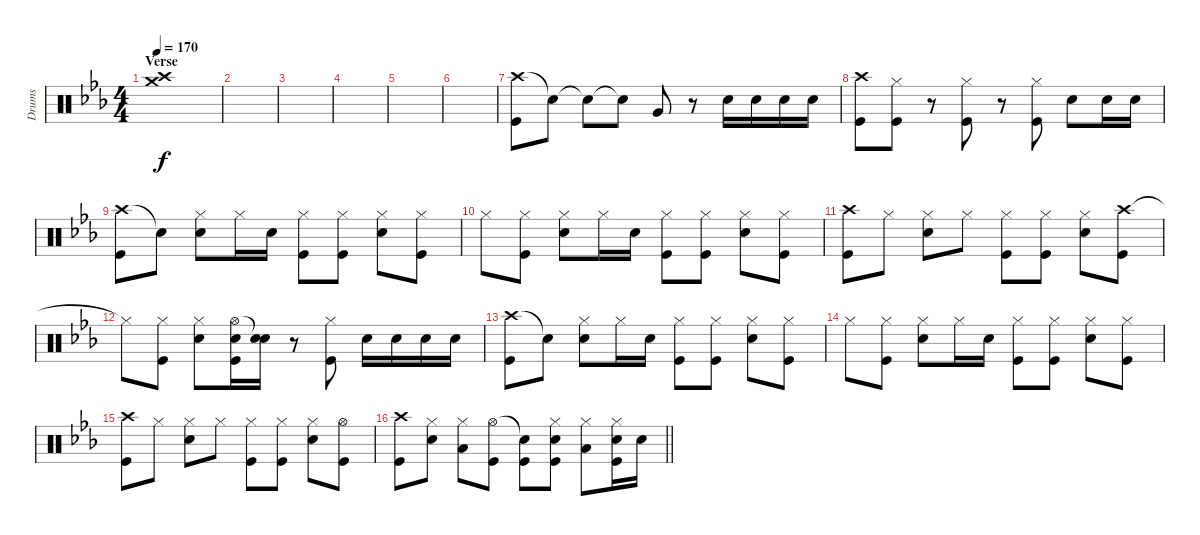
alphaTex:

\track ("Drums" "Drums") {solo instrument percussion}
\staff {score}
\articulation defaults
\ts (4 4)
\section ("" "Verse")
\tempo 170
\clef neutral
\ks eb
("Crash high (hit)" "Crash medium (hit)").1{dy f} |
|
|
|
|
|
("Crash high (hit)" "Kick (hit)").8 "Snare (hit)"{t}.8 "Snare (hit)"{t}.8 "Snare (hit)"{t}.8 "Very Low Tom (hit)".8 r.8 "Snare (hit) 2".16 "Snare (hit) 2".16 "Snare (hit) 2".16 "Snare (hit) 2".16 |
("Crash high (hit)" "Kick (hit)").8 ("Hi-Hat (closed)" "Kick (hit)").8 r.8 ("Hi-Hat (closed)" "Kick (hit)").8 r.8 ("Hi-Hat (closed)" "Kick (hit)").8 "Snare (hit) 2".8 "Snare (hit) 2".16 "Snare (hit) 2".16 |
("Crash high (hit)" "Kick (hit)").8 "Snare (hit)"{t}.8 ("Hi-Hat (closed)" "Snare (hit) 2").8 "Hi-Hat (closed)".16 "Snare (hit) 2".16 ("Hi-Hat (closed)" "Kick (hit)").8 ("Hi-Hat (closed)" "Kick (hit)").8 ("Hi-Hat (closed)" "Snare (hit) 2").8 ("Hi-Hat (closed)" "Kick (hit)").8 |
"Hi-Hat (closed)".8 ("Hi-Hat (closed)" "Kick (hit)").8 ("Hi-Hat (closed)" "Snare (hit) 2").8 "Hi-Hat (closed)".16 "Snare (hit) 2".16 ("Hi-Hat (closed)" "Kick (hit)").8 ("Hi-Hat (closed)" "Kick (hit)").8 ("Hi-Hat (closed)" "Snare (hit) 2").8 ("Hi-Hat (closed)" "Kick (hit)").8 |
("Crash high (hit)" "Kick (hit)").8 "Hi-Hat (closed)".8 ("Hi-Hat (closed)" "Snare (hit) 2").8 "Hi-Hat (closed)".8 ("Hi-Hat (closed)" "Kick (hit)").8 ("Hi-Hat (closed)" "Kick (hit)").8 ("Hi-Hat (closed)" "Snare (hit) 2").8 ("Crash high (hit)" "Kick (hit)").8 |
"Hi-Hat (closed)"{t}.8 ("Hi-Hat (closed)" "Kick (hit)").8 ("Hi-Hat (closed)" "Snare (hit) 2").8 ("Hi-Hat (open)" "Snare (hit) 2" "Kick (hit)").16 ("Snare (hit)"{t} "Snare (hit) 2").16 r.8 ("Hi-Hat (closed)" "Kick (hit)").8 "Snare (hit) 2".16 "Snare (hit) 2".16 "Snare (hit) 2".16 "Snare (hit) 2".16 |
("Crash high (hit)" "Kick (hit)").8 "Snare (hit)"{t}.8 ("Hi-Hat (closed)" "Snare (hit) 2").8 "Hi-Hat (closed)".16 "Snare (hit) 2".16 ("Hi-Hat (closed)" "Kick (hit)").8 ("Hi-Hat (closed)" "Kick (hit)").8 ("Hi-Hat (closed)" "Snare (hit) 2").8 ("Hi-Hat (closed)" "Kick (hit)").8 |
"Hi-Hat (closed)".8 ("Hi-Hat (closed)" "Kick (hit)").8 ("Hi-Hat (closed)" "Snare (hit) 2").8 "Hi-Hat (closed)".16 "Snare (hit) 2".16 ("Hi-Hat (closed)" "Kick (hit)").8 ("Hi-Hat (closed)" "Kick (hit)").8 ("Hi-Hat (closed)" "Snare (hit) 2").8 ("Hi-Hat (closed)" "Kick (hit)").8 |
("Crash high (hit)" "Kick (hit)").8 "Hi-Hat (closed)".8 ("Hi-Hat (closed)" "Snare (hit) 2").8 "Hi-Hat (closed)".8 ("Hi-Hat (closed)" "Kick (hit)").8 ("Hi-Hat (closed)" "Kick (hit)").8 ("Hi-Hat (closed)" "Snare (hit) 2").8 ("Hi-Hat (open)" "Kick (hit)").8 |
\barLineRight lightlight
("Crash high (hit)" "Kick (hit)").8 ("Hi-Hat (closed)" "Snare (hit) 2").8 ("Hi-Hat (closed)" "Low Tom (hit)").8 ("Hi-Hat (open)" "Kick (hit)").8 ("Snare (hit)"{t} "Kick (hit)").8 ("Hi-Hat (closed)" "Snare (hit) 2" "Kick (hit)").8 ("Hi-Hat (closed)" "Low Tom (hit)").8 ("Hi-Hat (closed)" "Snare (hit) 2" "Kick (hit)").16 "Snare (hit) 2".16
